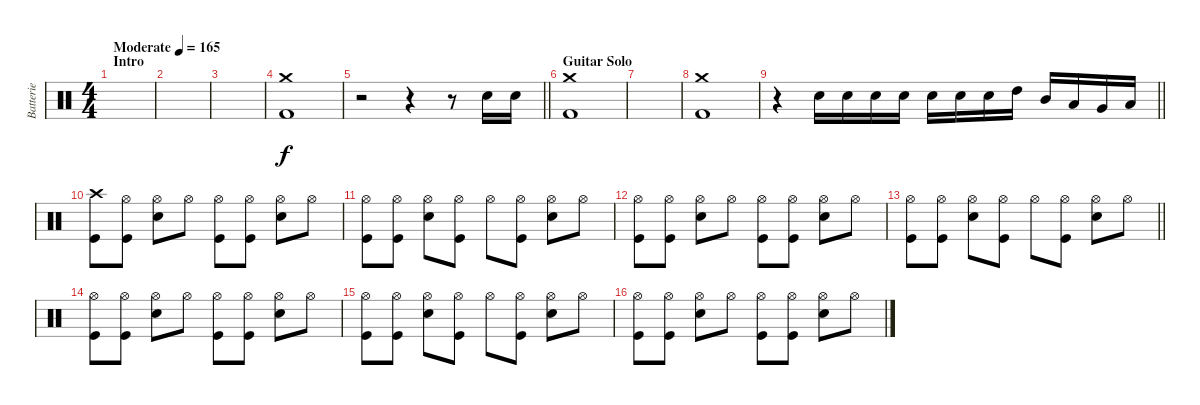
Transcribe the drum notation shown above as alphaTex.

\track ("Batterie" "Batterie") {instrument percussion}
\staff {score}
\articulation defaults
\ts (4 4)
\section ("" "Intro")
\tempo (165 "Moderate")
\clef neutral
\ks c
|
|
|
("Crash medium (hit)" "Kick (hit) 2").1 |
\barLineRight lightlight
r.2 r.4 r.8 "Snare (hit) 2".16 "Snare (hit) 2".16 |
\section ("" "Guitar Solo")
("Crash medium (hit)" "Kick (hit) 2").1 |
|
("Crash medium (hit)" "Kick (hit) 2").1 |
\barLineRight lightlight
r.4 "Electric Snare (hit)".16 "Electric Snare (hit)".16 "Electric Snare (hit)".16 "Electric Snare (hit)".16 "Electric Snare (hit)".16 "Electric Snare (hit)".16 "Electric Snare (hit)".16 "High Tom (hit)".16 "Mid Tom (hit)".16 "Low Tom (hit)".16 "Very Low Tom (hit)".16 "Low Floor Tom (hit)".16 |
("Crash high (hit)" "Kick (hit)").8 ("Hi-Hat (open)" "Kick (hit)").8 ("Hi-Hat (open)" "Electric Snare (hit)").8 "Hi-Hat (open)".8 ("Hi-Hat (open)" "Kick (hit)").8 ("Hi-Hat (open)" "Kick (hit)").8 ("Hi-Hat (open)" "Electric Snare (hit)").8 "Hi-Hat (open)".8 |
("Hi-Hat (open)" "Kick (hit)").8 ("Hi-Hat (open)" "Kick (hit)").8 ("Hi-Hat (open)" "Electric Snare (hit)").8 ("Hi-Hat (open)" "Kick (hit)").8 "Hi-Hat (open)".8 ("Hi-Hat (open)" "Kick (hit)").8 ("Hi-Hat (open)" "Electric Snare (hit)").8 "Hi-Hat (open)".8 |
("Hi-Hat (open)" "Kick (hit)").8 ("Hi-Hat (open)" "Kick (hit)").8 ("Hi-Hat (open)" "Electric Snare (hit)").8 "Hi-Hat (open)".8 ("Hi-Hat (open)" "Kick (hit)").8 ("Hi-Hat (open)" "Kick (hit)").8 ("Hi-Hat (open)" "Electric Snare (hit)").8 "Hi-Hat (open)".8 |
\barLineRight lightlight
("Hi-Hat (open)" "Kick (hit)").8 ("Hi-Hat (open)" "Kick (hit)").8 ("Hi-Hat (open)" "Electric Snare (hit)").8 ("Hi-Hat (open)" "Kick (hit)").8 "Hi-Hat (open)".8 ("Hi-Hat (open)" "Kick (hit)").8 ("Hi-Hat (open)" "Electric Snare (hit)").8 "Hi-Hat (open)".8 |
("Hi-Hat (open)" "Kick (hit)").8 ("Hi-Hat (open)" "Kick (hit)").8 ("Hi-Hat (open)" "Electric Snare (hit)").8 "Hi-Hat (open)".8 ("Hi-Hat (open)" "Kick (hit)").8 ("Hi-Hat (open)" "Kick (hit)").8 ("Hi-Hat (open)" "Electric Snare (hit)").8 "Hi-Hat (open)".8 |
("Hi-Hat (open)" "Kick (hit)").8 ("Hi-Hat (open)" "Kick (hit)").8 ("Hi-Hat (open)" "Electric Snare (hit)").8 ("Hi-Hat (open)" "Kick (hit)").8 "Hi-Hat (open)".8 ("Hi-Hat (open)" "Kick (hit)").8 ("Hi-Hat (open)" "Electric Snare (hit)").8 "Hi-Hat (open)".8 |
("Hi-Hat (open)" "Kick (hit)").8 ("Hi-Hat (open)" "Kick (hit)").8 ("Hi-Hat (open)" "Electric Snare (hit)").8 "Hi-Hat (open)".8 ("Hi-Hat (open)" "Kick (hit)").8 ("Hi-Hat (open)" "Kick (hit)").8 ("Hi-Hat (open)" "Electric Snare (hit)").8 "Hi-Hat (open)".8
